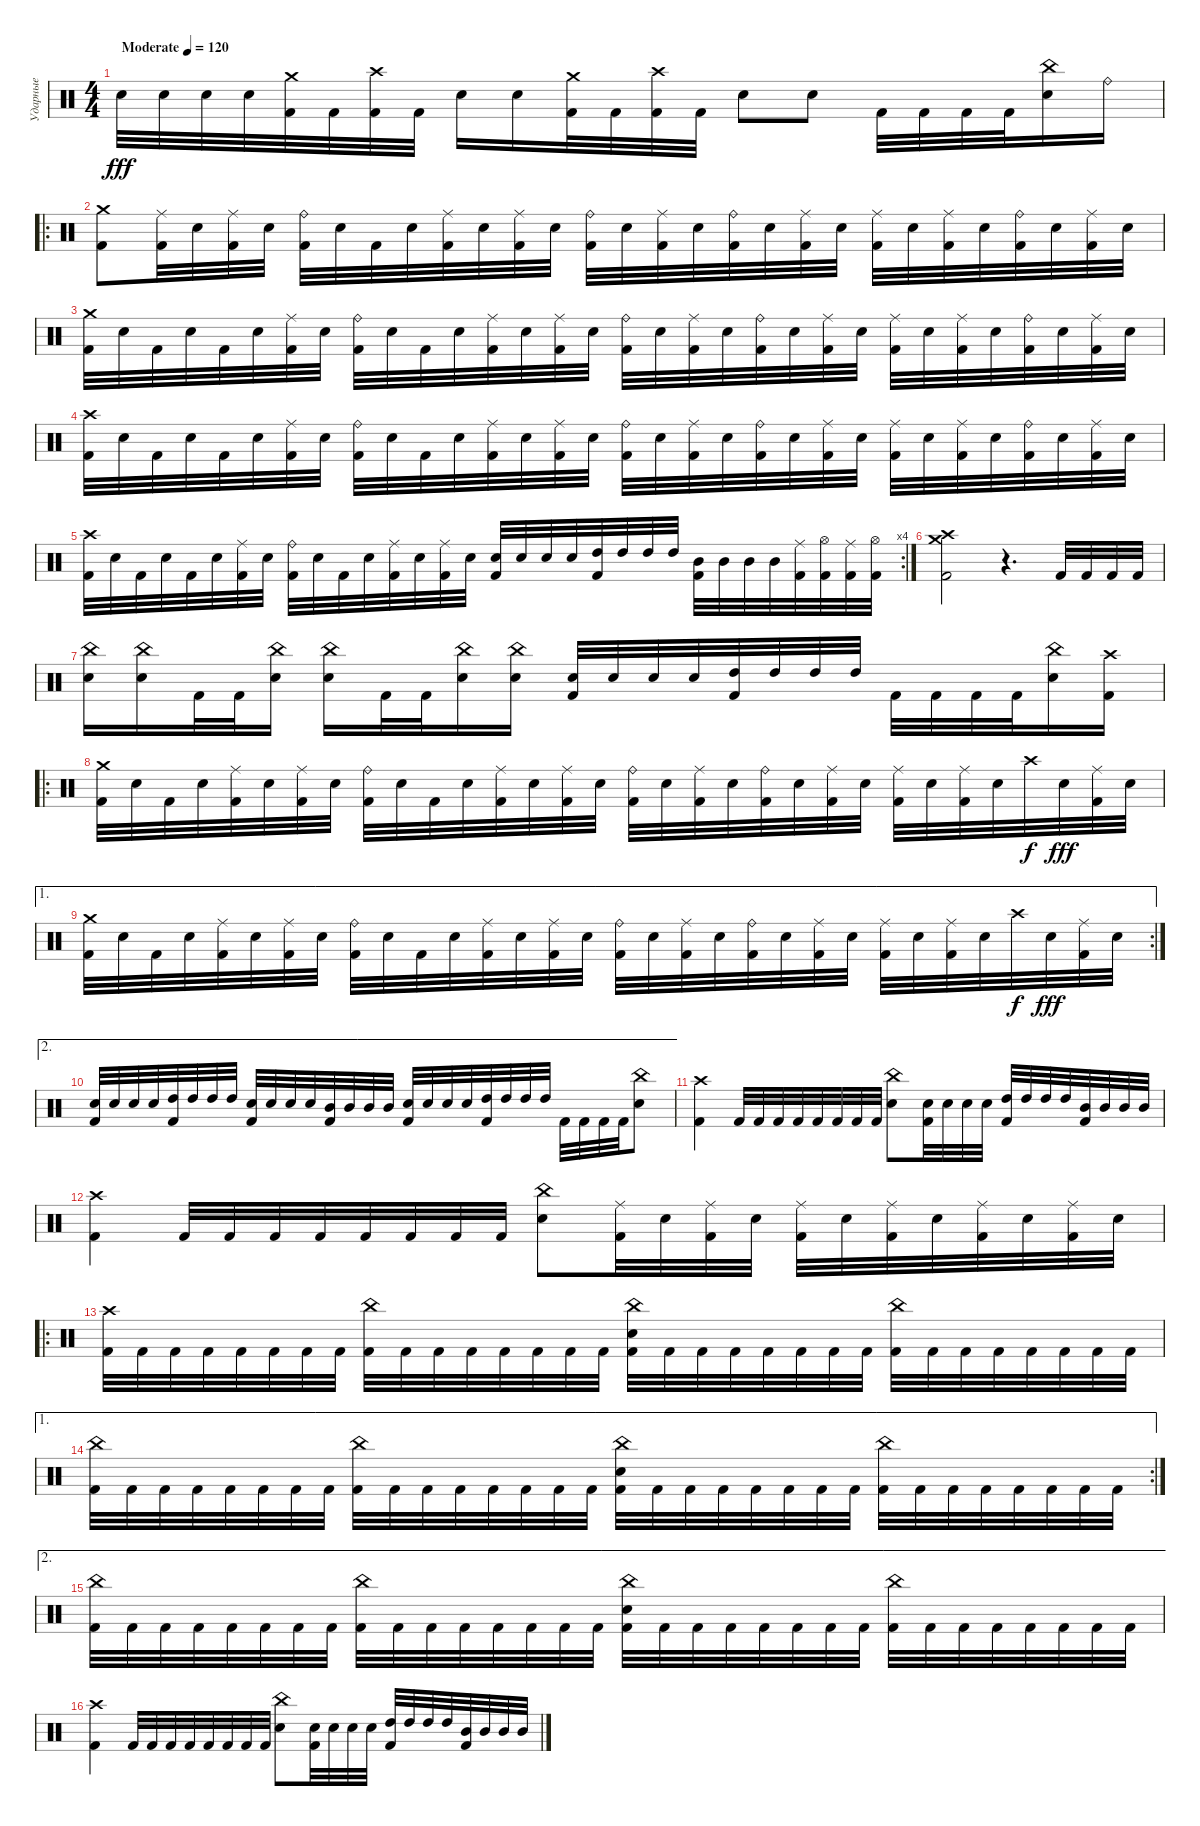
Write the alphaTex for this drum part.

\track ("Ударные" "Ударные") {instrument percussion}
\staff {score}
\articulation defaults
\ts (4 4)
\tempo (120 "Moderate")
\clef neutral
\ks c "Electric Snare (hit)".32{dy fff} "Electric Snare (hit)".32 "Electric Snare (hit)".32 "Electric Snare (hit)".32
("Crash medium (hit)" "Kick (hit) 2").32 "Kick (hit) 2".32 ("Crash high (hit)" "Kick (hit) 2").32 "Kick (hit) 2".32 "Electric Snare (hit)".16 "Electric Snare (hit)".16 ("Crash medium (hit)" "Kick (hit) 2").32 "Kick (hit) 2".32 ("Crash high (hit)" "Kick (hit) 2").32 "Kick (hit) 2".32 "Electric Snare (hit)".8 "Electric Snare (hit)".8 "Kick (hit) 2".32 "Kick (hit) 2".32 "Kick (hit) 2".32 "Kick (hit) 2".32 ("China (hit)" "Electric Snare (hit)").16 "Ride (bell)".16 |
\ro
("Crash medium (hit)" "Kick (hit) 2").8 ("Ride (middle)" "Kick (hit) 2").32 "Electric Snare (hit)".32 ("Ride (middle)" "Kick (hit) 2").32 "Electric Snare (hit)".32 ("Ride (bell)" "Kick (hit) 2").32 "Electric Snare (hit)".32 "Kick (hit) 2".32 "Electric Snare (hit)".32 ("Ride (middle)" "Kick (hit) 2").32 "Electric Snare (hit)".32 ("Ride (middle)" "Kick (hit) 2").32 "Electric Snare (hit)".32 ("Ride (bell)" "Kick (hit) 2").32 "Electric Snare (hit)".32 ("Ride (middle)" "Kick (hit) 2").32 "Electric Snare (hit)".32 ("Ride (bell)" "Kick (hit) 2").32 "Electric Snare (hit)".32 ("Ride (middle)" "Kick (hit) 2").32 "Electric Snare (hit)".32 ("Ride (middle)" "Kick (hit) 2").32 "Electric Snare (hit)".32 ("Ride (middle)" "Kick (hit) 2").32 "Electric Snare (hit)".32 ("Ride (bell)" "Kick (hit) 2").32 "Electric Snare (hit)".32 ("Ride (middle)" "Kick (hit) 2").32 "Electric Snare (hit)".32 |
("Crash medium (hit)" "Kick (hit) 2").32 "Electric Snare (hit)".32 "Kick (hit) 2".32 "Electric Snare (hit)".32 "Kick (hit) 2".32 "Electric Snare (hit)".32 ("Ride (middle)" "Kick (hit) 2").32 "Electric Snare (hit)".32 ("Ride (bell)" "Kick (hit) 2").32 "Electric Snare (hit)".32 "Kick (hit) 2".32 "Electric Snare (hit)".32 ("Ride (middle)" "Kick (hit) 2").32 "Electric Snare (hit)".32 ("Ride (middle)" "Kick (hit) 2").32 "Electric Snare (hit)".32 ("Ride (bell)" "Kick (hit) 2").32 "Electric Snare (hit)".32 ("Ride (middle)" "Kick (hit) 2").32 "Electric Snare (hit)".32 ("Ride (bell)" "Kick (hit) 2").32 "Electric Snare (hit)".32 ("Ride (middle)" "Kick (hit) 2").32 "Electric Snare (hit)".32 ("Ride (middle)" "Kick (hit) 2").32 "Electric Snare (hit)".32 ("Ride (middle)" "Kick (hit) 2").32 "Electric Snare (hit)".32 ("Ride (bell)" "Kick (hit) 2").32 "Electric Snare (hit)".32 ("Ride (middle)" "Kick (hit) 2").32 "Electric Snare (hit)".32 |
("Crash high (hit)" "Kick (hit) 2").32 "Electric Snare (hit)".32 "Kick (hit) 2".32 "Electric Snare (hit)".32 "Kick (hit) 2".32 "Electric Snare (hit)".32 ("Ride (middle)" "Kick (hit) 2").32 "Electric Snare (hit)".32 ("Ride (bell)" "Kick (hit) 2").32 "Electric Snare (hit)".32 "Kick (hit) 2".32 "Electric Snare (hit)".32 ("Ride (middle)" "Kick (hit) 2").32 "Electric Snare (hit)".32 ("Ride (middle)" "Kick (hit) 2").32 "Electric Snare (hit)".32 ("Ride (bell)" "Kick (hit) 2").32 "Electric Snare (hit)".32 ("Ride (middle)" "Kick (hit) 2").32 "Electric Snare (hit)".32 ("Ride (bell)" "Kick (hit) 2").32 "Electric Snare (hit)".32 ("Ride (middle)" "Kick (hit) 2").32 "Electric Snare (hit)".32 ("Ride (middle)" "Kick (hit) 2").32 "Electric Snare (hit)".32 ("Ride (middle)" "Kick (hit) 2").32 "Electric Snare (hit)".32 ("Ride (bell)" "Kick (hit) 2").32 "Electric Snare (hit)".32 ("Ride (middle)" "Kick (hit) 2").32 "Electric Snare (hit)".32 |
\rc 4
("Crash high (hit)" "Kick (hit) 2").32 "Electric Snare (hit)".32 "Kick (hit) 2".32 "Electric Snare (hit)".32 "Kick (hit) 2".32 "Electric Snare (hit)".32 ("Ride (middle)" "Kick (hit) 2").32 "Electric Snare (hit)".32 ("Ride (bell)" "Kick (hit) 2").32 "Electric Snare (hit)".32 "Kick (hit) 2".32 "Electric Snare (hit)".32 ("Ride (middle)" "Kick (hit) 2").32 "Electric Snare (hit)".32 ("Ride (middle)" "Kick (hit) 2").32 "Electric Snare (hit)".32 ("Electric Snare (hit)" "Kick (hit) 2").32 "Electric Snare (hit)".32 "Electric Snare (hit)".32 "Electric Snare (hit)".32 ("High Tom (hit)" "Kick (hit) 2").32 "High Tom (hit)".32 "High Tom (hit)".32 "High Tom (hit)".32 ("Mid Tom (hit)" "Kick (hit) 2").32 "Mid Tom (hit)".32 "Mid Tom (hit)".32 "Mid Tom (hit)".32 ("Ride (middle)" "Kick (hit) 2").32 ("Hi-Hat (open)" "Kick (hit) 2").32 ("Ride (middle)" "Kick (hit) 2").32 ("Hi-Hat (open)" "Kick (hit) 2").32 |
("Crash high (hit)" "Crash medium (hit)" "Kick (hit) 2").2 r.4{d} "Kick (hit) 2".32 "Kick (hit) 2".32 "Kick (hit) 2".32 "Kick (hit) 2".32 |
("China (hit)" "Electric Snare (hit)").16 ("China (hit)" "Electric Snare (hit)").16 "Kick (hit) 2".32 "Kick (hit) 2".32 ("China (hit)" "Electric Snare (hit)").16 ("China (hit)" "Electric Snare (hit)").16 "Kick (hit) 2".32 "Kick (hit) 2".32 ("China (hit)" "Electric Snare (hit)").16 ("China (hit)" "Electric Snare (hit)").16 ("Electric Snare (hit)" "Kick (hit) 2").32 "Electric Snare (hit)".32 "Electric Snare (hit)".32 "Electric Snare (hit)".32 ("High Tom (hit)" "Kick (hit) 2").32 "High Tom (hit)".32 "High Tom (hit)".32 "High Tom (hit)".32 "Kick (hit) 2".32 "Kick (hit) 2".32 "Kick (hit) 2".32 "Kick (hit) 2".32 ("China (hit)" "Electric Snare (hit)").16 ("Crash high (hit)" "Kick (hit) 2").16 |
\ro
("Crash medium (hit)" "Kick (hit) 2").32 "Electric Snare (hit)".32 "Kick (hit) 2".32 "Electric Snare (hit)".32 ("Ride (middle)" "Kick (hit) 2").32 "Electric Snare (hit)".32 ("Ride (middle)" "Kick (hit) 2").32 "Electric Snare (hit)".32 ("Ride (bell)" "Kick (hit) 2").32 "Electric Snare (hit)".32 "Kick (hit) 2".32 "Electric Snare (hit)".32 ("Ride (middle)" "Kick (hit) 2").32 "Electric Snare (hit)".32 ("Ride (middle)" "Kick (hit) 2").32 "Electric Snare (hit)".32 ("Ride (bell)" "Kick (hit) 2").32 "Electric Snare (hit)".32 ("Ride (middle)" "Kick (hit) 2").32 "Electric Snare (hit)".32 ("Ride (bell)" "Kick (hit) 2").32 "Electric Snare (hit)".32 ("Ride (middle)" "Kick (hit) 2").32 "Electric Snare (hit)".32 ("Ride (middle)" "Kick (hit) 2").32 "Electric Snare (hit)".32 ("Ride (middle)" "Kick (hit) 2").32 "Electric Snare (hit)".32 "Crash high (hit)".32{dy f} "Electric Snare (hit)".32{dy fff} ("Ride (middle)" "Kick (hit) 2").32 "Electric Snare (hit)".32 |
\ae 1
\rc 2
("Crash medium (hit)" "Kick (hit) 2").32 "Electric Snare (hit)".32 "Kick (hit) 2".32 "Electric Snare (hit)".32 ("Ride (middle)" "Kick (hit) 2").32 "Electric Snare (hit)".32 ("Ride (middle)" "Kick (hit) 2").32 "Electric Snare (hit)".32 ("Ride (bell)" "Kick (hit) 2").32 "Electric Snare (hit)".32 "Kick (hit) 2".32 "Electric Snare (hit)".32 ("Ride (middle)" "Kick (hit) 2").32 "Electric Snare (hit)".32 ("Ride (middle)" "Kick (hit) 2").32 "Electric Snare (hit)".32 ("Ride (bell)" "Kick (hit) 2").32 "Electric Snare (hit)".32 ("Ride (middle)" "Kick (hit) 2").32 "Electric Snare (hit)".32 ("Ride (bell)" "Kick (hit) 2").32 "Electric Snare (hit)".32 ("Ride (middle)" "Kick (hit) 2").32 "Electric Snare (hit)".32 ("Ride (middle)" "Kick (hit) 2").32 "Electric Snare (hit)".32 ("Ride (middle)" "Kick (hit) 2").32 "Electric Snare (hit)".32 "Crash high (hit)".32{dy f} "Electric Snare (hit)".32{dy fff} ("Ride (middle)" "Kick (hit) 2").32 "Electric Snare (hit)".32 |
\ae 2
("Electric Snare (hit)" "Kick (hit) 2").32 "Electric Snare (hit)".32 "Electric Snare (hit)".32 "Electric Snare (hit)".32 ("High Tom (hit)" "Kick (hit) 2").32 "High Tom (hit)".32 "High Tom (hit)".32 "High Tom (hit)".32 ("Electric Snare (hit)" "Kick (hit) 2").32 "Electric Snare (hit)".32 "Electric Snare (hit)".32 "Electric Snare (hit)".32 ("Mid Tom (hit)" "Kick (hit) 2").32 "Mid Tom (hit)".32 "Mid Tom (hit)".32 "Mid Tom (hit)".32 ("Electric Snare (hit)" "Kick (hit) 2").32 "Electric Snare (hit)".32 "Electric Snare (hit)".32 "Electric Snare (hit)".32 ("High Tom (hit)" "Kick (hit) 2").32 "High Tom (hit)".32 "High Tom (hit)".32 "High Tom (hit)".32 "Kick (hit) 2".32 "Kick (hit) 2".32 "Kick (hit) 2".32 "Kick (hit) 2".32 ("China (hit)" "Electric Snare (hit)").8 |
("Crash high (hit)" "Kick (hit) 2").4 "Kick (hit) 2".32 "Kick (hit) 2".32 "Kick (hit) 2".32 "Kick (hit) 2".32 "Kick (hit) 2".32 "Kick (hit) 2".32 "Kick (hit) 2".32 "Kick (hit) 2".32 ("China (hit)" "Electric Snare (hit)").8 ("Electric Snare (hit)" "Kick (hit) 2").32 "Electric Snare (hit)".32 "Electric Snare (hit)".32 "Electric Snare (hit)".32 ("High Tom (hit)" "Kick (hit) 2").32 "High Tom (hit)".32 "High Tom (hit)".32 "High Tom (hit)".32 ("Mid Tom (hit)" "Kick (hit) 2").32 "Mid Tom (hit)".32 "Mid Tom (hit)".32 "Mid Tom (hit)".32 |
("Crash high (hit)" "Kick (hit) 2").4 "Kick (hit) 2".32 "Kick (hit) 2".32 "Kick (hit) 2".32 "Kick (hit) 2".32 "Kick (hit) 2".32 "Kick (hit) 2".32 "Kick (hit) 2".32 "Kick (hit) 2".32 ("China (hit)" "Electric Snare (hit)").8 ("Ride (middle)" "Kick (hit) 2").32 "Electric Snare (hit)".32 ("Ride (middle)" "Kick (hit) 2").32 "Electric Snare (hit)".32 ("Ride (middle)" "Kick (hit) 2").32 "Electric Snare (hit)".32 ("Ride (middle)" "Kick (hit) 2").32 "Electric Snare (hit)".32 ("Ride (middle)" "Kick (hit) 2").32 "Electric Snare (hit)".32 ("Ride (middle)" "Kick (hit) 2").32 "Electric Snare (hit)".32 |
\ro
("Kick (hit) 2" "Crash high (hit)").32 "Kick (hit) 2".32 "Kick (hit) 2".32 "Kick (hit) 2".32 "Kick (hit) 2".32 "Kick (hit) 2".32 "Kick (hit) 2".32 "Kick (hit) 2".32 ("Kick (hit) 2" "China (hit)").32 "Kick (hit) 2".32 "Kick (hit) 2".32 "Kick (hit) 2".32 "Kick (hit) 2".32 "Kick (hit) 2".32 "Kick (hit) 2".32 "Kick (hit) 2".32 ("Kick (hit) 2" "Electric Snare (hit)" "China (hit)").32 "Kick (hit) 2".32 "Kick (hit) 2".32 "Kick (hit) 2".32 "Kick (hit) 2".32 "Kick (hit) 2".32 "Kick (hit) 2".32 "Kick (hit) 2".32 ("Kick (hit) 2" "China (hit)").32 "Kick (hit) 2".32 "Kick (hit) 2".32 "Kick (hit) 2".32 "Kick (hit) 2".32 "Kick (hit) 2".32 "Kick (hit) 2".32 "Kick (hit) 2".32 |
\ae 1
\rc 2
("Kick (hit) 2" "China (hit)").32 "Kick (hit) 2".32 "Kick (hit) 2".32 "Kick (hit) 2".32 "Kick (hit) 2".32 "Kick (hit) 2".32 "Kick (hit) 2".32 "Kick (hit) 2".32 ("Kick (hit) 2" "China (hit)").32 "Kick (hit) 2".32 "Kick (hit) 2".32 "Kick (hit) 2".32 "Kick (hit) 2".32 "Kick (hit) 2".32 "Kick (hit) 2".32 "Kick (hit) 2".32 ("Kick (hit) 2" "Electric Snare (hit)" "China (hit)").32 "Kick (hit) 2".32 "Kick (hit) 2".32 "Kick (hit) 2".32 "Kick (hit) 2".32 "Kick (hit) 2".32 "Kick (hit) 2".32 "Kick (hit) 2".32 ("Kick (hit) 2" "China (hit)").32 "Kick (hit) 2".32 "Kick (hit) 2".32 "Kick (hit) 2".32 "Kick (hit) 2".32 "Kick (hit) 2".32 "Kick (hit) 2".32 "Kick (hit) 2".32 |
\ae 2
("Kick (hit) 2" "China (hit)").32 "Kick (hit) 2".32 "Kick (hit) 2".32 "Kick (hit) 2".32 "Kick (hit) 2".32 "Kick (hit) 2".32 "Kick (hit) 2".32 "Kick (hit) 2".32 ("Kick (hit) 2" "China (hit)").32 "Kick (hit) 2".32 "Kick (hit) 2".32 "Kick (hit) 2".32 "Kick (hit) 2".32 "Kick (hit) 2".32 "Kick (hit) 2".32 "Kick (hit) 2".32 ("Kick (hit) 2" "Electric Snare (hit)" "China (hit)").32 "Kick (hit) 2".32 "Kick (hit) 2".32 "Kick (hit) 2".32 "Kick (hit) 2".32 "Kick (hit) 2".32 "Kick (hit) 2".32 "Kick (hit) 2".32 ("Kick (hit) 2" "China (hit)").32 "Kick (hit) 2".32 "Kick (hit) 2".32 "Kick (hit) 2".32 "Kick (hit) 2".32 "Kick (hit) 2".32 "Kick (hit) 2".32 "Kick (hit) 2".32 |
("Crash high (hit)" "Kick (hit) 2").4 "Kick (hit) 2".32 "Kick (hit) 2".32 "Kick (hit) 2".32 "Kick (hit) 2".32 "Kick (hit) 2".32 "Kick (hit) 2".32 "Kick (hit) 2".32 "Kick (hit) 2".32 ("China (hit)" "Electric Snare (hit)").8 ("Electric Snare (hit)" "Kick (hit) 2").32 "Electric Snare (hit)".32 "Electric Snare (hit)".32 "Electric Snare (hit)".32 ("High Tom (hit)" "Kick (hit) 2").32 "High Tom (hit)".32 "High Tom (hit)".32 "High Tom (hit)".32 ("Mid Tom (hit)" "Kick (hit) 2").32 "Mid Tom (hit)".32 "Mid Tom (hit)".32 "Mid Tom (hit)".32
